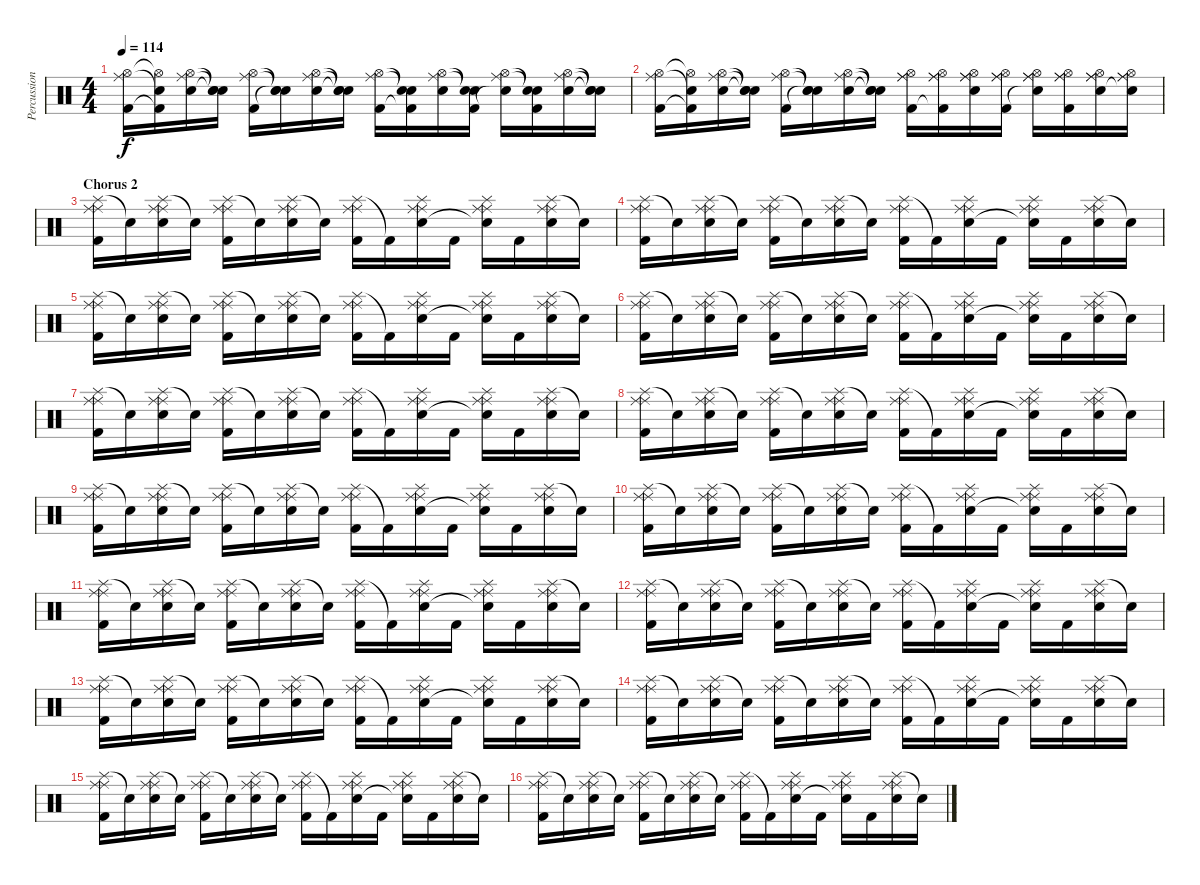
\track ("Percussion" "Percussion") {instrument percussion}
\staff {score}
\articulation defaults
\ts (4 4)
\tempo 114
\clef neutral
\ks c
("Hi-Hat (open)" "Ride (middle)" "Kick (hit) 2").16{dy f} ("Hi-Hat (open)"{t} "Snare (hit)"{t} "Kick (hit) 2"{t}).16 ("Hi-Hat (open)" "Ride (middle)" "Snare (hit) 2").16 ("Snare (hit)"{t} "Snare (hit)"{t} "Snare (hit)"{t}).16 ("Hi-Hat (open)" "Ride (middle)" "Kick (hit) 2").16 ("Snare (hit)"{t} "Snare (hit)"{t} "Snare (hit)"{t}).16 ("Hi-Hat (open)" "Ride (middle)" "Snare (hit) 2").16 ("Snare (hit)"{t} "Snare (hit)"{t} "Snare (hit)"{t}).16 ("Hi-Hat (open)" "Ride (middle)" "Kick (hit) 2").16 ("Snare (hit)"{t} "Snare (hit)"{t} "Kick (hit) 2"{t}).16 ("Hi-Hat (open)" "Ride (middle)" "Snare (hit) 2").16 ("Snare (hit)"{t} "Snare (hit)"{t} "Kick (hit) 2").16 ("Hi-Hat (open)" "Ride (middle)" "Snare (hit)"{t}).16 ("Snare (hit)"{t} "Snare (hit)"{t} "Kick (hit) 2").16 ("Hi-Hat (open)" "Ride (middle)" "Snare (hit) 2").16 ("Snare (hit)"{t} "Snare (hit)"{t} "Snare (hit)"{t}).16 |
("Hi-Hat (open)" "Ride (middle)" "Kick (hit) 2").16 ("Hi-Hat (open)"{t} "Snare (hit)"{t} "Kick (hit) 2"{t}).16 ("Hi-Hat (open)" "Ride (middle)" "Snare (hit) 2").16 ("Snare (hit)"{t} "Snare (hit)"{t} "Snare (hit)"{t}).16 ("Hi-Hat (open)" "Ride (middle)" "Kick (hit) 2").16 ("Snare (hit)"{t} "Snare (hit)"{t} "Snare (hit)"{t}).16 ("Hi-Hat (open)" "Ride (middle)" "Snare (hit) 2").16 ("Snare (hit)"{t} "Snare (hit)"{t} "Snare (hit)"{t}).16 ("Ride (middle)" "Hi-Hat (open)" "Ride (middle)" "Kick (hit) 2").16 ("Ride (middle)" "Hi-Hat (open)" "Ride (middle)" "Kick (hit) 2"{t}).16 ("Ride (middle)" "Hi-Hat (open)" "Ride (middle)" "Snare (hit) 2").16 ("Ride (middle)" "Hi-Hat (open)" "Ride (middle)" "Kick (hit) 2").16 ("Ride (middle)" "Hi-Hat (open)" "Ride (middle)" "Snare (hit)"{t}).16 ("Ride (middle)" "Hi-Hat (open)" "Ride (middle)" "Kick (hit) 2").16 ("Ride (middle)" "Hi-Hat (open)" "Ride (middle)" "Snare (hit) 2").16 ("Ride (middle)" "Hi-Hat (open)" "Ride (middle)" "Snare (hit)"{t}).16 |
\section ("" "Chorus 2")
("Splash (hit)" "Ride (middle)" "Ride (middle)" "Kick (hit) 2").16 "Snare (hit)"{t}.16 ("Splash (hit)" "Ride (middle)" "Ride (middle)" "Snare (hit) 2").16 "Snare (hit)"{t}.16 ("Splash (hit)" "Ride (middle)" "Ride (middle)" "Kick (hit) 2").16 "Snare (hit)"{t}.16 ("Splash (hit)" "Ride (middle)" "Ride (middle)" "Snare (hit) 2").16 "Snare (hit)"{t}.16 ("Splash (hit)" "Ride (middle)" "Ride (middle)" "Kick (hit) 2").16 "Kick (hit) 2"{t}.16 ("Splash (hit)" "Ride (middle)" "Ride (middle)" "Snare (hit) 2").16 "Kick (hit) 2".16 ("Splash (hit)" "Ride (middle)" "Ride (middle)" "Snare (hit)"{t}).16 "Kick (hit) 2".16 ("Splash (hit)" "Ride (middle)" "Ride (middle)" "Snare (hit) 2").16 "Snare (hit)"{t}.16 |
("Splash (hit)" "Ride (middle)" "Ride (middle)" "Kick (hit) 2").16 "Snare (hit)"{t}.16 ("Splash (hit)" "Ride (middle)" "Ride (middle)" "Snare (hit) 2").16 "Snare (hit)"{t}.16 ("Splash (hit)" "Ride (middle)" "Ride (middle)" "Kick (hit) 2").16 "Snare (hit)"{t}.16 ("Splash (hit)" "Ride (middle)" "Ride (middle)" "Snare (hit) 2").16 "Snare (hit)"{t}.16 ("Splash (hit)" "Ride (middle)" "Ride (middle)" "Kick (hit) 2").16 "Kick (hit) 2"{t}.16 ("Splash (hit)" "Ride (middle)" "Ride (middle)" "Snare (hit) 2").16 "Kick (hit) 2".16 ("Splash (hit)" "Ride (middle)" "Ride (middle)" "Snare (hit)"{t}).16 "Kick (hit) 2".16 ("Splash (hit)" "Ride (middle)" "Ride (middle)" "Snare (hit) 2").16 "Snare (hit)"{t}.16 |
("Splash (hit)" "Ride (middle)" "Ride (middle)" "Kick (hit) 2").16 "Snare (hit)"{t}.16 ("Splash (hit)" "Ride (middle)" "Ride (middle)" "Snare (hit) 2").16 "Snare (hit)"{t}.16 ("Splash (hit)" "Ride (middle)" "Ride (middle)" "Kick (hit) 2").16 "Snare (hit)"{t}.16 ("Splash (hit)" "Ride (middle)" "Ride (middle)" "Snare (hit) 2").16 "Snare (hit)"{t}.16 ("Splash (hit)" "Ride (middle)" "Ride (middle)" "Kick (hit) 2").16 "Kick (hit) 2"{t}.16 ("Splash (hit)" "Ride (middle)" "Ride (middle)" "Snare (hit) 2").16 "Kick (hit) 2".16 ("Splash (hit)" "Ride (middle)" "Ride (middle)" "Snare (hit)"{t}).16 "Kick (hit) 2".16 ("Splash (hit)" "Ride (middle)" "Ride (middle)" "Snare (hit) 2").16 "Snare (hit)"{t}.16 |
("Splash (hit)" "Ride (middle)" "Ride (middle)" "Kick (hit) 2").16 "Snare (hit)"{t}.16 ("Splash (hit)" "Ride (middle)" "Ride (middle)" "Snare (hit) 2").16 "Snare (hit)"{t}.16 ("Splash (hit)" "Ride (middle)" "Ride (middle)" "Kick (hit) 2").16 "Snare (hit)"{t}.16 ("Splash (hit)" "Ride (middle)" "Ride (middle)" "Snare (hit) 2").16 "Snare (hit)"{t}.16 ("Splash (hit)" "Ride (middle)" "Ride (middle)" "Kick (hit) 2").16 "Kick (hit) 2"{t}.16 ("Splash (hit)" "Ride (middle)" "Ride (middle)" "Snare (hit) 2").16 "Kick (hit) 2".16 ("Splash (hit)" "Ride (middle)" "Ride (middle)" "Snare (hit)"{t}).16 "Kick (hit) 2".16 ("Splash (hit)" "Ride (middle)" "Ride (middle)" "Snare (hit) 2").16 "Snare (hit)"{t}.16 |
("Splash (hit)" "Ride (middle)" "Ride (middle)" "Kick (hit) 2").16 "Snare (hit)"{t}.16 ("Splash (hit)" "Ride (middle)" "Ride (middle)" "Snare (hit) 2").16 "Snare (hit)"{t}.16 ("Splash (hit)" "Ride (middle)" "Ride (middle)" "Kick (hit) 2").16 "Snare (hit)"{t}.16 ("Splash (hit)" "Ride (middle)" "Ride (middle)" "Snare (hit) 2").16 "Snare (hit)"{t}.16 ("Splash (hit)" "Ride (middle)" "Ride (middle)" "Kick (hit) 2").16 "Kick (hit) 2"{t}.16 ("Splash (hit)" "Ride (middle)" "Ride (middle)" "Snare (hit) 2").16 "Kick (hit) 2".16 ("Splash (hit)" "Ride (middle)" "Ride (middle)" "Snare (hit)"{t}).16 "Kick (hit) 2".16 ("Splash (hit)" "Ride (middle)" "Ride (middle)" "Snare (hit) 2").16 "Snare (hit)"{t}.16 |
("Splash (hit)" "Ride (middle)" "Ride (middle)" "Kick (hit) 2").16 "Snare (hit)"{t}.16 ("Splash (hit)" "Ride (middle)" "Ride (middle)" "Snare (hit) 2").16 "Snare (hit)"{t}.16 ("Splash (hit)" "Ride (middle)" "Ride (middle)" "Kick (hit) 2").16 "Snare (hit)"{t}.16 ("Splash (hit)" "Ride (middle)" "Ride (middle)" "Snare (hit) 2").16 "Snare (hit)"{t}.16 ("Splash (hit)" "Ride (middle)" "Ride (middle)" "Kick (hit) 2").16 "Kick (hit) 2"{t}.16 ("Splash (hit)" "Ride (middle)" "Ride (middle)" "Snare (hit) 2").16 "Kick (hit) 2".16 ("Splash (hit)" "Ride (middle)" "Ride (middle)" "Snare (hit)"{t}).16 "Kick (hit) 2".16 ("Splash (hit)" "Ride (middle)" "Ride (middle)" "Snare (hit) 2").16 "Snare (hit)"{t}.16 |
("Splash (hit)" "Ride (middle)" "Ride (middle)" "Kick (hit) 2").16 "Snare (hit)"{t}.16 ("Splash (hit)" "Ride (middle)" "Ride (middle)" "Snare (hit) 2").16 "Snare (hit)"{t}.16 ("Splash (hit)" "Ride (middle)" "Ride (middle)" "Kick (hit) 2").16 "Snare (hit)"{t}.16 ("Splash (hit)" "Ride (middle)" "Ride (middle)" "Snare (hit) 2").16 "Snare (hit)"{t}.16 ("Splash (hit)" "Ride (middle)" "Ride (middle)" "Kick (hit) 2").16 "Kick (hit) 2"{t}.16 ("Splash (hit)" "Ride (middle)" "Ride (middle)" "Snare (hit) 2").16 "Kick (hit) 2".16 ("Splash (hit)" "Ride (middle)" "Ride (middle)" "Snare (hit)"{t}).16 "Kick (hit) 2".16 ("Splash (hit)" "Ride (middle)" "Ride (middle)" "Snare (hit) 2").16 "Snare (hit)"{t}.16 |
("Splash (hit)" "Ride (middle)" "Ride (middle)" "Kick (hit) 2").16 "Snare (hit)"{t}.16 ("Splash (hit)" "Ride (middle)" "Ride (middle)" "Snare (hit) 2").16 "Snare (hit)"{t}.16 ("Splash (hit)" "Ride (middle)" "Ride (middle)" "Kick (hit) 2").16 "Snare (hit)"{t}.16 ("Splash (hit)" "Ride (middle)" "Ride (middle)" "Snare (hit) 2").16 "Snare (hit)"{t}.16 ("Splash (hit)" "Ride (middle)" "Ride (middle)" "Kick (hit) 2").16 "Kick (hit) 2"{t}.16 ("Splash (hit)" "Ride (middle)" "Ride (middle)" "Snare (hit) 2").16 "Kick (hit) 2".16 ("Splash (hit)" "Ride (middle)" "Ride (middle)" "Snare (hit)"{t}).16 "Kick (hit) 2".16 ("Splash (hit)" "Ride (middle)" "Ride (middle)" "Snare (hit) 2").16 "Snare (hit)"{t}.16 |
("Splash (hit)" "Ride (middle)" "Ride (middle)" "Kick (hit) 2").16 "Snare (hit)"{t}.16 ("Splash (hit)" "Ride (middle)" "Ride (middle)" "Snare (hit) 2").16 "Snare (hit)"{t}.16 ("Splash (hit)" "Ride (middle)" "Ride (middle)" "Kick (hit) 2").16 "Snare (hit)"{t}.16 ("Splash (hit)" "Ride (middle)" "Ride (middle)" "Snare (hit) 2").16 "Snare (hit)"{t}.16 ("Splash (hit)" "Ride (middle)" "Ride (middle)" "Kick (hit) 2").16 "Kick (hit) 2"{t}.16 ("Splash (hit)" "Ride (middle)" "Ride (middle)" "Snare (hit) 2").16 "Kick (hit) 2".16 ("Splash (hit)" "Ride (middle)" "Ride (middle)" "Snare (hit)"{t}).16 "Kick (hit) 2".16 ("Splash (hit)" "Ride (middle)" "Ride (middle)" "Snare (hit) 2").16 "Snare (hit)"{t}.16 |
("Splash (hit)" "Ride (middle)" "Ride (middle)" "Kick (hit) 2").16 "Snare (hit)"{t}.16 ("Splash (hit)" "Ride (middle)" "Ride (middle)" "Snare (hit) 2").16 "Snare (hit)"{t}.16 ("Splash (hit)" "Ride (middle)" "Ride (middle)" "Kick (hit) 2").16 "Snare (hit)"{t}.16 ("Splash (hit)" "Ride (middle)" "Ride (middle)" "Snare (hit) 2").16 "Snare (hit)"{t}.16 ("Splash (hit)" "Ride (middle)" "Ride (middle)" "Kick (hit) 2").16 "Kick (hit) 2"{t}.16 ("Splash (hit)" "Ride (middle)" "Ride (middle)" "Snare (hit) 2").16 "Kick (hit) 2".16 ("Splash (hit)" "Ride (middle)" "Ride (middle)" "Snare (hit)"{t}).16 "Kick (hit) 2".16 ("Splash (hit)" "Ride (middle)" "Ride (middle)" "Snare (hit) 2").16 "Snare (hit)"{t}.16 |
("Splash (hit)" "Ride (middle)" "Ride (middle)" "Kick (hit) 2").16 "Snare (hit)"{t}.16 ("Splash (hit)" "Ride (middle)" "Ride (middle)" "Snare (hit) 2").16 "Snare (hit)"{t}.16 ("Splash (hit)" "Ride (middle)" "Ride (middle)" "Kick (hit) 2").16 "Snare (hit)"{t}.16 ("Splash (hit)" "Ride (middle)" "Ride (middle)" "Snare (hit) 2").16 "Snare (hit)"{t}.16 ("Splash (hit)" "Ride (middle)" "Ride (middle)" "Kick (hit) 2").16 "Kick (hit) 2"{t}.16 ("Splash (hit)" "Ride (middle)" "Ride (middle)" "Snare (hit) 2").16 "Kick (hit) 2".16 ("Splash (hit)" "Ride (middle)" "Ride (middle)" "Snare (hit)"{t}).16 "Kick (hit) 2".16 ("Splash (hit)" "Ride (middle)" "Ride (middle)" "Snare (hit) 2").16 "Snare (hit)"{t}.16 |
("Splash (hit)" "Ride (middle)" "Ride (middle)" "Kick (hit) 2").16 "Snare (hit)"{t}.16 ("Splash (hit)" "Ride (middle)" "Ride (middle)" "Snare (hit) 2").16 "Snare (hit)"{t}.16 ("Splash (hit)" "Ride (middle)" "Ride (middle)" "Kick (hit) 2").16 "Snare (hit)"{t}.16 ("Splash (hit)" "Ride (middle)" "Ride (middle)" "Snare (hit) 2").16 "Snare (hit)"{t}.16 ("Splash (hit)" "Ride (middle)" "Ride (middle)" "Kick (hit) 2").16 "Kick (hit) 2"{t}.16 ("Splash (hit)" "Ride (middle)" "Ride (middle)" "Snare (hit) 2").16 "Kick (hit) 2".16 ("Splash (hit)" "Ride (middle)" "Ride (middle)" "Snare (hit)"{t}).16 "Kick (hit) 2".16 ("Splash (hit)" "Ride (middle)" "Ride (middle)" "Snare (hit) 2").16 "Snare (hit)"{t}.16 |
("Splash (hit)" "Ride (middle)" "Ride (middle)" "Kick (hit) 2").16 "Snare (hit)"{t}.16 ("Splash (hit)" "Ride (middle)" "Ride (middle)" "Snare (hit) 2").16 "Snare (hit)"{t}.16 ("Splash (hit)" "Ride (middle)" "Ride (middle)" "Kick (hit) 2").16 "Snare (hit)"{t}.16 ("Splash (hit)" "Ride (middle)" "Ride (middle)" "Snare (hit) 2").16 "Snare (hit)"{t}.16 ("Splash (hit)" "Ride (middle)" "Ride (middle)" "Kick (hit) 2").16 "Kick (hit) 2"{t}.16 ("Splash (hit)" "Ride (middle)" "Ride (middle)" "Snare (hit) 2").16 "Kick (hit) 2".16 ("Splash (hit)" "Ride (middle)" "Ride (middle)" "Snare (hit)"{t}).16 "Kick (hit) 2".16 ("Splash (hit)" "Ride (middle)" "Ride (middle)" "Snare (hit) 2").16 "Snare (hit)"{t}.16 |
("Splash (hit)" "Ride (middle)" "Ride (middle)" "Kick (hit) 2").16 "Snare (hit)"{t}.16 ("Splash (hit)" "Ride (middle)" "Ride (middle)" "Snare (hit) 2").16 "Snare (hit)"{t}.16 ("Splash (hit)" "Ride (middle)" "Ride (middle)" "Kick (hit) 2").16 "Snare (hit)"{t}.16 ("Splash (hit)" "Ride (middle)" "Ride (middle)" "Snare (hit) 2").16 "Snare (hit)"{t}.16 ("Splash (hit)" "Ride (middle)" "Ride (middle)" "Kick (hit) 2").16 "Kick (hit) 2"{t}.16 ("Splash (hit)" "Ride (middle)" "Ride (middle)" "Snare (hit) 2").16 "Kick (hit) 2".16 ("Splash (hit)" "Ride (middle)" "Ride (middle)" "Snare (hit)"{t}).16 "Kick (hit) 2".16 ("Splash (hit)" "Ride (middle)" "Ride (middle)" "Snare (hit) 2").16 "Snare (hit)"{t}.16
